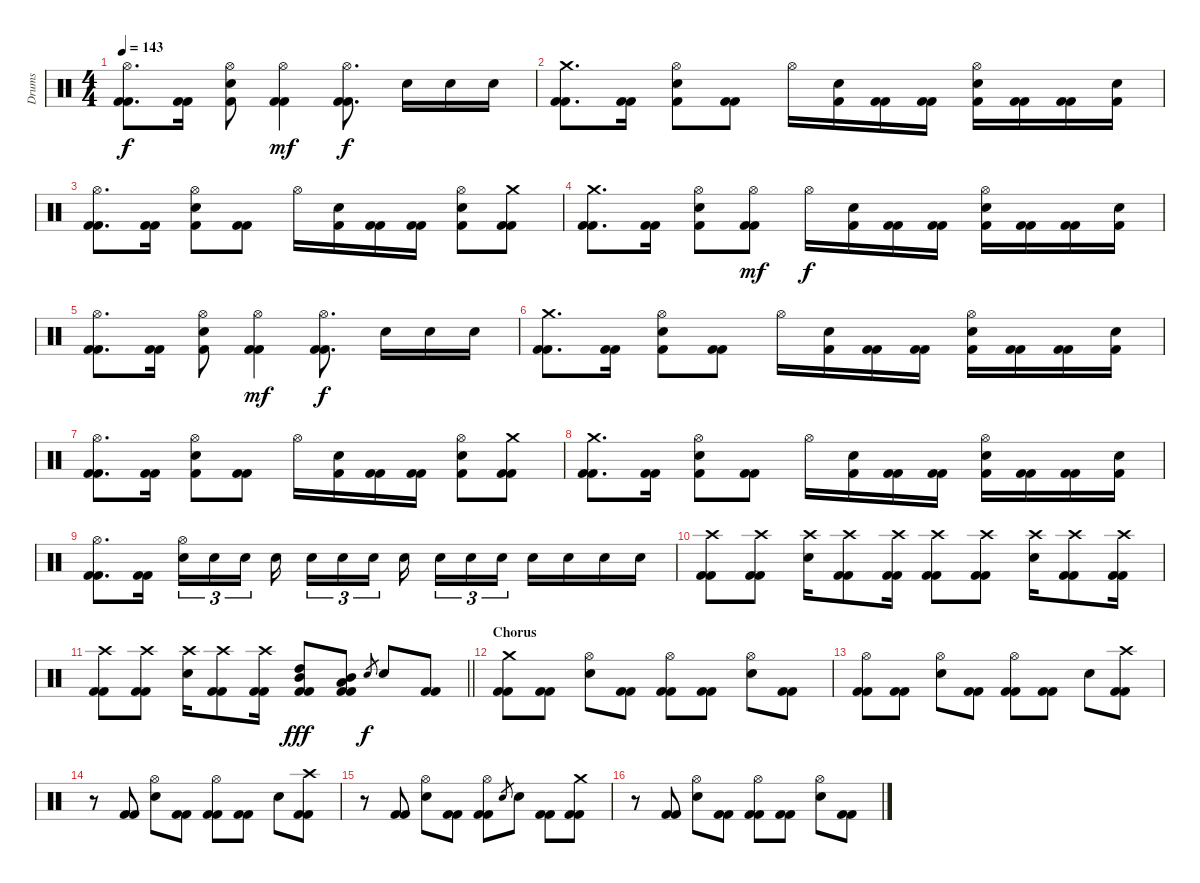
\track ("Drums" "Drums") {instrument percussion}
\staff {score}
\articulation defaults
\ts (4 4)
\tempo 143
\clef neutral
\ks c
("Hi-Hat (open)" "Kick (hit) 2" "Kick (hit) 2").8{d dy f} ("Kick (hit) 2" "Kick (hit) 2").16 ("Hi-Hat (open)" "Electric Snare (hit)" "Kick (hit) 2").8 ("Hi-Hat (open)" "Kick (hit) 2" "Kick (hit) 2").4{dy mf} ("Hi-Hat (open)" "Kick (hit) 2" "Kick (hit) 2").8{d dy f} "Electric Snare (hit)".16 "Electric Snare (hit)".16 "Electric Snare (hit)".16 |
("Crash medium (hit)" "Kick (hit) 2" "Kick (hit) 2").8{d} ("Kick (hit) 2" "Kick (hit) 2").16 ("Hi-Hat (open)" "Electric Snare (hit)" "Kick (hit) 2").8 ("Kick (hit) 2" "Kick (hit) 2").8 "Hi-Hat (open)".16 ("Electric Snare (hit)" "Kick (hit) 2").16 ("Kick (hit) 2" "Kick (hit) 2").16 ("Kick (hit) 2" "Kick (hit) 2").16 ("Hi-Hat (open)" "Electric Snare (hit)" "Kick (hit) 2").16 ("Kick (hit) 2" "Kick (hit) 2").16 ("Kick (hit) 2" "Kick (hit) 2").16 ("Electric Snare (hit)" "Kick (hit) 2").16 |
("Hi-Hat (open)" "Kick (hit) 2" "Kick (hit) 2").8{d} ("Kick (hit) 2" "Kick (hit) 2").16 ("Hi-Hat (open)" "Electric Snare (hit)" "Kick (hit) 2").8 ("Kick (hit) 2" "Kick (hit) 2").8 "Hi-Hat (open)".16 ("Electric Snare (hit)" "Kick (hit) 2").16 ("Kick (hit) 2" "Kick (hit) 2").16 ("Kick (hit) 2" "Kick (hit) 2").16 ("Hi-Hat (open)" "Electric Snare (hit)" "Kick (hit) 2").8 ("Crash medium (hit)" "Kick (hit) 2" "Kick (hit) 2").8 |
("Crash medium (hit)" "Kick (hit) 2" "Kick (hit) 2").8{d} ("Kick (hit) 2" "Kick (hit) 2").16 ("Hi-Hat (open)" "Electric Snare (hit)" "Kick (hit) 2").8 ("Hi-Hat (open)" "Kick (hit) 2" "Kick (hit) 2").8{dy mf} "Hi-Hat (open)".16{dy f} ("Electric Snare (hit)" "Kick (hit) 2").16 ("Kick (hit) 2" "Kick (hit) 2").16 ("Kick (hit) 2" "Kick (hit) 2").16 ("Hi-Hat (open)" "Electric Snare (hit)" "Kick (hit) 2").16 ("Kick (hit) 2" "Kick (hit) 2").16 ("Kick (hit) 2" "Kick (hit) 2").16 ("Electric Snare (hit)" "Kick (hit) 2").16 |
("Hi-Hat (open)" "Kick (hit) 2" "Kick (hit) 2").8{d} ("Kick (hit) 2" "Kick (hit) 2").16 ("Hi-Hat (open)" "Electric Snare (hit)" "Kick (hit) 2").8 ("Hi-Hat (open)" "Kick (hit) 2" "Kick (hit) 2").4{dy mf} ("Hi-Hat (open)" "Kick (hit) 2" "Kick (hit) 2").8{d dy f} "Electric Snare (hit)".16 "Electric Snare (hit)".16 "Electric Snare (hit)".16 |
("Crash medium (hit)" "Kick (hit) 2" "Kick (hit) 2").8{d} ("Kick (hit) 2" "Kick (hit) 2").16 ("Hi-Hat (open)" "Electric Snare (hit)" "Kick (hit) 2").8 ("Kick (hit) 2" "Kick (hit) 2").8 "Hi-Hat (open)".16 ("Electric Snare (hit)" "Kick (hit) 2").16 ("Kick (hit) 2" "Kick (hit) 2").16 ("Kick (hit) 2" "Kick (hit) 2").16 ("Hi-Hat (open)" "Electric Snare (hit)" "Kick (hit) 2").16 ("Kick (hit) 2" "Kick (hit) 2").16 ("Kick (hit) 2" "Kick (hit) 2").16 ("Electric Snare (hit)" "Kick (hit) 2").16 |
("Hi-Hat (open)" "Kick (hit) 2" "Kick (hit) 2").8{d} ("Kick (hit) 2" "Kick (hit) 2").16 ("Hi-Hat (open)" "Electric Snare (hit)" "Kick (hit) 2").8 ("Kick (hit) 2" "Kick (hit) 2").8 "Hi-Hat (open)".16 ("Electric Snare (hit)" "Kick (hit) 2").16 ("Kick (hit) 2" "Kick (hit) 2").16 ("Kick (hit) 2" "Kick (hit) 2").16 ("Hi-Hat (open)" "Electric Snare (hit)" "Kick (hit) 2").8 ("Crash medium (hit)" "Kick (hit) 2" "Kick (hit) 2").8 |
("Crash medium (hit)" "Kick (hit) 2" "Kick (hit) 2").8{d} ("Kick (hit) 2" "Kick (hit) 2").16 ("Hi-Hat (open)" "Electric Snare (hit)" "Kick (hit) 2").8 ("Kick (hit) 2" "Kick (hit) 2").8 "Hi-Hat (open)".16 ("Electric Snare (hit)" "Kick (hit) 2").16 ("Kick (hit) 2" "Kick (hit) 2").16 ("Kick (hit) 2" "Kick (hit) 2").16 ("Hi-Hat (open)" "Electric Snare (hit)" "Kick (hit) 2").16 ("Kick (hit) 2" "Kick (hit) 2").16 ("Kick (hit) 2" "Kick (hit) 2").16 ("Electric Snare (hit)" "Kick (hit) 2").16 |
("Hi-Hat (open)" "Kick (hit) 2" "Kick (hit) 2").8{d} ("Kick (hit) 2" "Kick (hit) 2").16 ("Hi-Hat (open)" "Electric Snare (hit)").16{tu (3 2)} "Electric Snare (hit)".16{tu (3 2)} "Electric Snare (hit)".16{tu (3 2) beam splitsecondary} "Electric Snare (hit)".16{beam splitsecondary} "Electric Snare (hit)".16{tu (3 2)} "Electric Snare (hit)".16{tu (3 2)} "Electric Snare (hit)".16{tu (3 2) beam splitsecondary} "Electric Snare (hit)".16{beam splitsecondary} "Electric Snare (hit)".16{tu (3 2)} "Electric Snare (hit)".16{tu (3 2)} "Electric Snare (hit)".16{tu (3 2)} "Electric Snare (hit)".16 "Electric Snare (hit)".16 "Electric Snare (hit)".16 "Electric Snare (hit)".16 |
("Crash high (hit)" "Kick (hit) 2" "Kick (hit) 2").8 ("Crash high (hit)" "Kick (hit) 2" "Kick (hit) 2").8 ("Crash high (hit)" "Electric Snare (hit)").16 ("Crash high (hit)" "Kick (hit) 2" "Kick (hit) 2").8 ("Crash high (hit)" "Kick (hit) 2" "Kick (hit) 2").16 ("Crash high (hit)" "Kick (hit) 2" "Kick (hit) 2").8 ("Crash high (hit)" "Kick (hit) 2" "Kick (hit) 2").8 ("Crash high (hit)" "Electric Snare (hit)").16 ("Crash high (hit)" "Kick (hit) 2" "Kick (hit) 2").8 ("Crash high (hit)" "Kick (hit) 2" "Kick (hit) 2").16 |
\barLineRight lightlight
("Crash high (hit)" "Kick (hit) 2" "Kick (hit) 2").8 ("Crash high (hit)" "Kick (hit) 2" "Kick (hit) 2").8 ("Crash high (hit)" "Electric Snare (hit)").16 ("Crash high (hit)" "Kick (hit) 2" "Kick (hit) 2").8 ("Crash high (hit)" "Kick (hit) 2" "Kick (hit) 2").16 ("Mid Tom (hit)" "High Tom (hit)" "Kick (hit) 2" "Kick (hit) 2").8{dy fff} ("Low Tom (hit)" "Mid Tom (hit)" "Kick (hit) 2" "Kick (hit) 2").8 "Electric Snare (hit)".8{gr dy f} "Electric Snare (hit)".8 ("Kick (hit) 2" "Kick (hit) 2").8 |
\section ("" "Chorus")
("Crash medium (hit)" "Kick (hit) 2" "Kick (hit) 2").8 ("Kick (hit) 2" "Kick (hit) 2").8 ("Hi-Hat (open)" "Electric Snare (hit)").8 ("Kick (hit) 2" "Kick (hit) 2").8 ("Hi-Hat (open)" "Kick (hit) 2" "Kick (hit) 2").8 ("Kick (hit) 2" "Kick (hit) 2").8 ("Hi-Hat (open)" "Electric Snare (hit)").8 ("Kick (hit) 2" "Kick (hit) 2").8 |
("Hi-Hat (open)" "Kick (hit) 2" "Kick (hit) 2").8 ("Kick (hit) 2" "Kick (hit) 2").8 ("Hi-Hat (open)" "Electric Snare (hit)").8 ("Kick (hit) 2" "Kick (hit) 2").8 ("Hi-Hat (open)" "Kick (hit) 2" "Kick (hit) 2").8 ("Kick (hit) 2" "Kick (hit) 2").8 "Electric Snare (hit)".8 ("Crash high (hit)" "Kick (hit) 2" "Kick (hit) 2").8 |
r.8 ("Kick (hit) 2" "Kick (hit) 2").8 ("Hi-Hat (open)" "Electric Snare (hit)").8 ("Kick (hit) 2" "Kick (hit) 2").8 ("Hi-Hat (open)" "Kick (hit) 2" "Kick (hit) 2").8 ("Kick (hit) 2" "Kick (hit) 2").8 "Electric Snare (hit)".8 ("Crash high (hit)" "Kick (hit) 2" "Kick (hit) 2").8 |
r.8 ("Kick (hit) 2" "Kick (hit) 2").8 ("Hi-Hat (open)" "Electric Snare (hit)").8 ("Kick (hit) 2" "Kick (hit) 2").8 ("Hi-Hat (open)" "Kick (hit) 2" "Kick (hit) 2").8 "Electric Snare (hit)".8{gr} "Electric Snare (hit)".8 ("Kick (hit) 2" "Kick (hit) 2").8 ("Crash medium (hit)" "Kick (hit) 2" "Kick (hit) 2").8 |
r.8 ("Kick (hit) 2" "Kick (hit) 2").8 ("Hi-Hat (open)" "Electric Snare (hit)").8 ("Kick (hit) 2" "Kick (hit) 2").8 ("Hi-Hat (open)" "Kick (hit) 2" "Kick (hit) 2").8 ("Kick (hit) 2" "Kick (hit) 2").8 ("Hi-Hat (open)" "Electric Snare (hit)").8 ("Kick (hit) 2" "Kick (hit) 2").8
